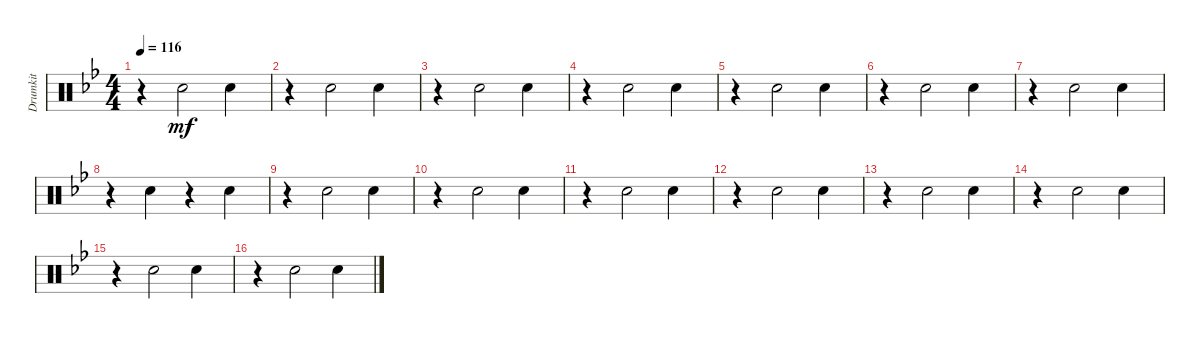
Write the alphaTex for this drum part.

\track ("Drumkit" "Drumkit") {instrument percussion}
\staff {score}
\articulation defaults
\ts (4 4)
\tempo 116
\clef neutral
\ks bb
r.4{dy mf} "Snare (hit) 2".2 "Snare (hit) 2".4 |
r.4 "Snare (hit) 2".2 "Snare (hit) 2".4 |
r.4 "Snare (hit) 2".2 "Snare (hit) 2".4 |
r.4 "Snare (hit) 2".2 "Snare (hit) 2".4 |
r.4 "Snare (hit) 2".2 "Snare (hit) 2".4 |
r.4 "Snare (hit) 2".2 "Snare (hit) 2".4 |
r.4 "Snare (hit) 2".2 "Snare (hit) 2".4 |
r.4 "Snare (hit) 2".4 r.4 "Snare (hit) 2".4 |
r.4 "Snare (hit) 2".2 "Snare (hit) 2".4 |
r.4 "Snare (hit) 2".2 "Snare (hit) 2".4 |
r.4 "Snare (hit) 2".2 "Snare (hit) 2".4 |
r.4 "Snare (hit) 2".2 "Snare (hit) 2".4 |
r.4 "Snare (hit) 2".2 "Snare (hit) 2".4 |
r.4 "Snare (hit) 2".2 "Snare (hit) 2".4 |
r.4 "Snare (hit) 2".2 "Snare (hit) 2".4 |
r.4 "Snare (hit) 2".2 "Snare (hit) 2".4
